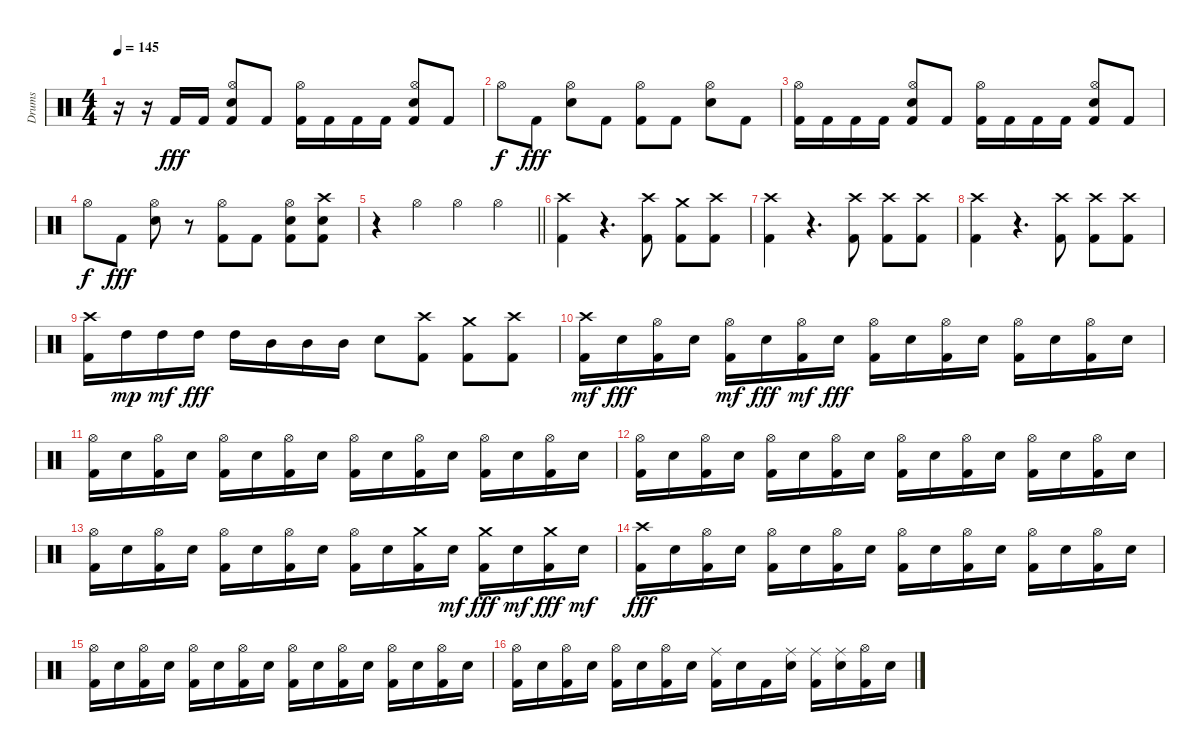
\track ("Drums" "Drums") {instrument percussion}
\staff {score}
\articulation defaults
\ts (4 4)
\tempo 145
\clef neutral
\ks c
r.16{dy fff} r.16 "Kick (hit) 2".16 "Kick (hit) 2".16 ("Hi-Hat (open)" "Snare (hit) 2" "Kick (hit) 2").8 "Kick (hit) 2".8 ("Hi-Hat (open)" "Kick (hit) 2").16 "Kick (hit) 2".16 "Kick (hit) 2".16 "Kick (hit) 2".16 ("Hi-Hat (open)" "Snare (hit) 2" "Kick (hit) 2").8 "Kick (hit) 2".8 |
"Hi-Hat (open)".8{dy f} "Kick (hit) 2".8{dy fff} ("Hi-Hat (open)" "Snare (hit) 2").8 "Kick (hit) 2".8 ("Hi-Hat (open)" "Kick (hit) 2").8 "Kick (hit) 2".8 ("Hi-Hat (open)" "Snare (hit) 2").8 "Kick (hit) 2".8 |
("Hi-Hat (open)" "Kick (hit) 2").16 "Kick (hit) 2".16 "Kick (hit) 2".16 "Kick (hit) 2".16 ("Hi-Hat (open)" "Snare (hit) 2" "Kick (hit) 2").8 "Kick (hit) 2".8 ("Hi-Hat (open)" "Kick (hit) 2").16 "Kick (hit) 2".16 "Kick (hit) 2".16 "Kick (hit) 2".16 ("Hi-Hat (open)" "Snare (hit) 2" "Kick (hit) 2").8 "Kick (hit) 2".8 |
"Hi-Hat (open)".8{dy f} "Kick (hit) 2".8{dy fff} ("Hi-Hat (open)" "Snare (hit) 2").8 r.8 ("Hi-Hat (open)" "Kick (hit) 2").8 "Kick (hit) 2".8 ("Hi-Hat (open)" "Snare (hit) 2" "Kick (hit) 2").8 ("Crash high (hit)" "Snare (hit) 2" "Kick (hit) 2").8 |
\barLineRight lightlight
r.4 "Hi-Hat (open)".4 "Hi-Hat (open)".4 "Hi-Hat (open)".4 |
("Crash high (hit)" "Kick (hit) 2").4 r.4{d volume 0} ("Crash high (hit)" "Kick (hit) 2").8{volume 16} ("Crash medium (hit)" "Kick (hit) 2").8 ("Crash high (hit)" "Kick (hit) 2").8 |
("Crash high (hit)" "Kick (hit) 2").4 r.4{d volume 0} ("Crash high (hit)" "Kick (hit) 2").8{volume 16} ("Crash high (hit)" "Kick (hit) 2").8 ("Crash high (hit)" "Kick (hit) 2").8 |
("Crash high (hit)" "Kick (hit) 2").4 r.4{d volume 0} ("Crash high (hit)" "Kick (hit) 2").8{volume 16} ("Crash high (hit)" "Kick (hit) 2").8 ("Crash high (hit)" "Kick (hit) 2").8 |
("Crash high (hit)" "Kick (hit) 2").16 "High Tom (hit)".16{dy mp} "High Tom (hit)".16{dy mf} "High Tom (hit)".16{dy fff} "High Tom (hit)".16 "Mid Tom (hit)".16 "Mid Tom (hit)".16 "Mid Tom (hit)".16 "Snare (hit) 2".8 ("Crash high (hit)" "Kick (hit) 2").8 ("Crash medium (hit)" "Kick (hit) 2").8 ("Crash high (hit)" "Kick (hit) 2").8 |
("Crash high (hit)" "Kick (hit) 2").16{dy mf} "Snare (hit) 2".16{dy fff} ("Hi-Hat (open)" "Kick (hit) 2").16 "Snare (hit) 2".16 ("Hi-Hat (open)" "Kick (hit) 2").16{dy mf} "Snare (hit) 2".16{dy fff} ("Hi-Hat (open)" "Kick (hit) 2").16{dy mf} "Snare (hit) 2".16{dy fff} ("Hi-Hat (open)" "Kick (hit) 2").16 "Snare (hit) 2".16 ("Hi-Hat (open)" "Kick (hit) 2").16 "Snare (hit) 2".16 ("Hi-Hat (open)" "Kick (hit) 2").16 "Snare (hit) 2".16 ("Hi-Hat (open)" "Kick (hit) 2").16 "Snare (hit) 2".16 |
("Hi-Hat (open)" "Kick (hit) 2").16 "Snare (hit) 2".16 ("Hi-Hat (open)" "Kick (hit) 2").16 "Snare (hit) 2".16 ("Hi-Hat (open)" "Kick (hit) 2").16 "Snare (hit) 2".16 ("Hi-Hat (open)" "Kick (hit) 2").16 "Snare (hit) 2".16 ("Hi-Hat (open)" "Kick (hit) 2").16 "Snare (hit) 2".16 ("Hi-Hat (open)" "Kick (hit) 2").16 "Snare (hit) 2".16 ("Hi-Hat (open)" "Kick (hit) 2").16 "Snare (hit) 2".16 ("Hi-Hat (open)" "Kick (hit) 2").16 "Snare (hit) 2".16 |
("Hi-Hat (open)" "Kick (hit) 2").16 "Snare (hit) 2".16 ("Hi-Hat (open)" "Kick (hit) 2").16 "Snare (hit) 2".16 ("Hi-Hat (open)" "Kick (hit) 2").16 "Snare (hit) 2".16 ("Hi-Hat (open)" "Kick (hit) 2").16 "Snare (hit) 2".16 ("Hi-Hat (open)" "Kick (hit) 2").16 "Snare (hit) 2".16 ("Hi-Hat (open)" "Kick (hit) 2").16 "Snare (hit) 2".16 ("Hi-Hat (open)" "Kick (hit) 2").16 "Snare (hit) 2".16 ("Hi-Hat (open)" "Kick (hit) 2").16 "Snare (hit) 2".16 |
("Hi-Hat (open)" "Kick (hit) 2").16 "Snare (hit) 2".16 ("Hi-Hat (open)" "Kick (hit) 2").16 "Snare (hit) 2".16 ("Hi-Hat (open)" "Kick (hit) 2").16 "Snare (hit) 2".16 ("Hi-Hat (open)" "Kick (hit) 2").16 "Snare (hit) 2".16 ("Hi-Hat (open)" "Kick (hit) 2").16 "Snare (hit) 2".16 ("Crash medium (hit)" "Kick (hit) 2").16 "Snare (hit) 2".16{dy mf} ("Crash medium (hit)" "Kick (hit) 2").16{dy fff} "Snare (hit) 2".16{dy mf} ("Crash medium (hit)" "Kick (hit) 2").16{dy fff} "Snare (hit) 2".16{dy mf} |
("Crash high (hit)" "Kick (hit) 2").16{dy fff} "Snare (hit) 2".16 ("Hi-Hat (open)" "Kick (hit) 2").16 "Snare (hit) 2".16 ("Hi-Hat (open)" "Kick (hit) 2").16 "Snare (hit) 2".16 ("Hi-Hat (open)" "Kick (hit) 2").16 "Snare (hit) 2".16 ("Hi-Hat (open)" "Kick (hit) 2").16 "Snare (hit) 2".16 ("Hi-Hat (open)" "Kick (hit) 2").16 "Snare (hit) 2".16 ("Hi-Hat (open)" "Kick (hit) 2").16 "Snare (hit) 2".16 ("Hi-Hat (open)" "Kick (hit) 2").16 "Snare (hit) 2".16 |
("Hi-Hat (open)" "Kick (hit) 2").16 "Snare (hit) 2".16 ("Hi-Hat (open)" "Kick (hit) 2").16 "Snare (hit) 2".16 ("Hi-Hat (open)" "Kick (hit) 2").16 "Snare (hit) 2".16 ("Hi-Hat (open)" "Kick (hit) 2").16 "Snare (hit) 2".16 ("Hi-Hat (open)" "Kick (hit) 2").16 "Snare (hit) 2".16 ("Hi-Hat (open)" "Kick (hit) 2").16 "Snare (hit) 2".16 ("Hi-Hat (open)" "Kick (hit) 2").16 "Snare (hit) 2".16 ("Hi-Hat (open)" "Kick (hit) 2").16 "Snare (hit) 2".16 |
("Hi-Hat (open)" "Kick (hit) 2").16 "Snare (hit) 2".16 ("Hi-Hat (open)" "Kick (hit) 2").16 "Snare (hit) 2".16 ("Hi-Hat (open)" "Kick (hit) 2").16 "Snare (hit) 2".16 ("Hi-Hat (open)" "Kick (hit) 2").16 "Snare (hit) 2".16 ("Ride (middle)" "Kick (hit) 2").16 "Snare (hit) 2".16 "Kick (hit) 2".16 ("Ride (middle)" "Snare (hit) 2").16 ("Ride (middle)" "Kick (hit) 2").16 ("Ride (middle)" "Snare (hit) 2").16 ("Hi-Hat (open)" "Kick (hit) 2").16 "Snare (hit) 2".16
